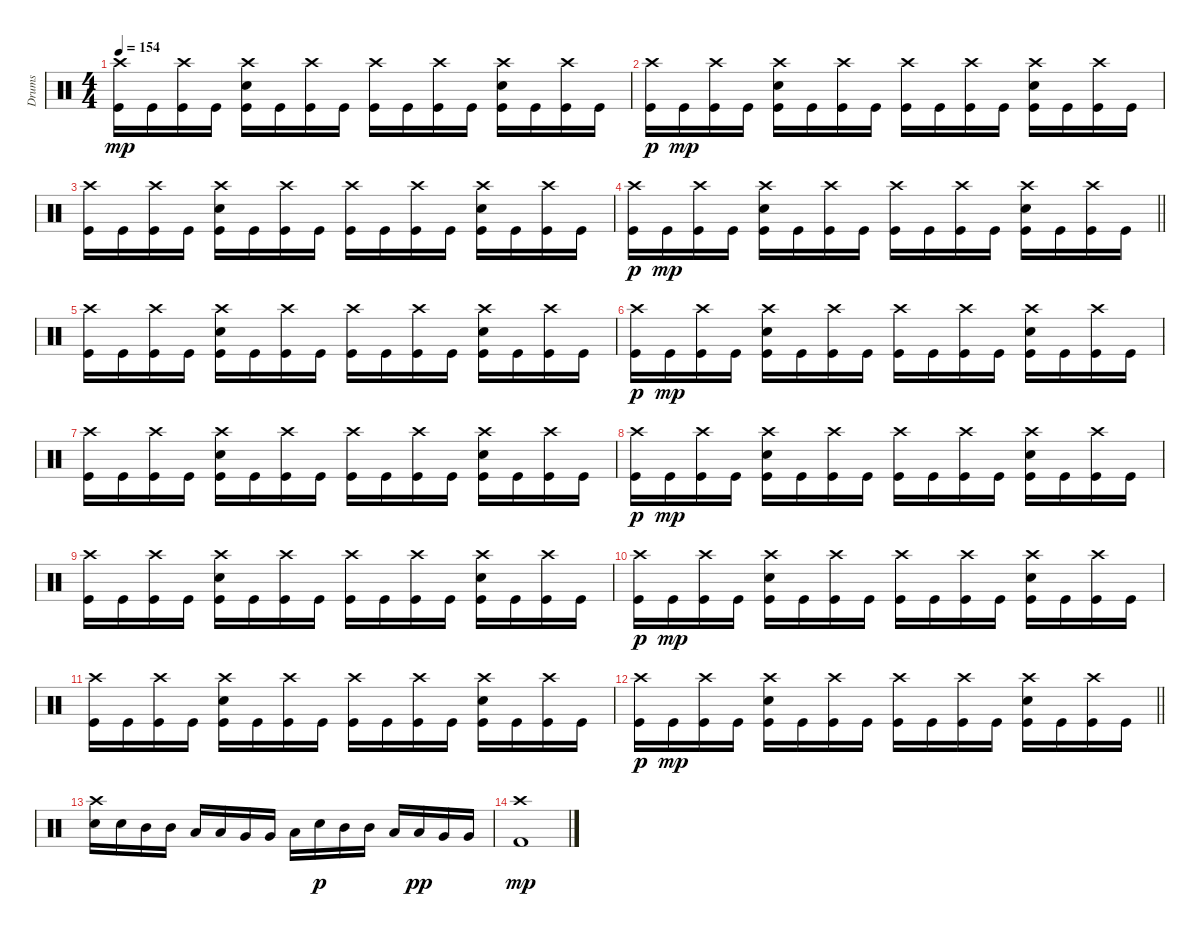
\track ("Drums" "Drums") {instrument percussion}
\staff {score}
\articulation defaults
\ts (4 4)
\tempo 154
\clef neutral
\ks c
("Crash high (hit)" "Kick (hit)").16{dy mp} "Kick (hit)".16 ("Crash high (hit)" "Kick (hit)").16 "Kick (hit)".16 ("Crash high (hit)" "Electric Snare (hit)" "Kick (hit)").16 "Kick (hit)".16 ("Crash high (hit)" "Kick (hit)").16 "Kick (hit)".16 ("Crash high (hit)" "Kick (hit)").16 "Kick (hit)".16 ("Crash high (hit)" "Kick (hit)").16 "Kick (hit)".16 ("Crash high (hit)" "Electric Snare (hit)" "Kick (hit)").16 "Kick (hit)".16 ("Crash high (hit)" "Kick (hit)").16 "Kick (hit)".16 |
("Crash high (hit)" "Kick (hit)").16{dy p} "Kick (hit)".16{dy mp} ("Crash high (hit)" "Kick (hit)").16 "Kick (hit)".16 ("Crash high (hit)" "Electric Snare (hit)" "Kick (hit)").16 "Kick (hit)".16 ("Crash high (hit)" "Kick (hit)").16 "Kick (hit)".16 ("Crash high (hit)" "Kick (hit)").16 "Kick (hit)".16 ("Crash high (hit)" "Kick (hit)").16 "Kick (hit)".16 ("Crash high (hit)" "Electric Snare (hit)" "Kick (hit)").16 "Kick (hit)".16 ("Crash high (hit)" "Kick (hit)").16 "Kick (hit)".16 |
("Crash high (hit)" "Kick (hit)").16 "Kick (hit)".16 ("Crash high (hit)" "Kick (hit)").16 "Kick (hit)".16 ("Crash high (hit)" "Electric Snare (hit)" "Kick (hit)").16 "Kick (hit)".16 ("Crash high (hit)" "Kick (hit)").16 "Kick (hit)".16 ("Crash high (hit)" "Kick (hit)").16 "Kick (hit)".16 ("Crash high (hit)" "Kick (hit)").16 "Kick (hit)".16 ("Crash high (hit)" "Electric Snare (hit)" "Kick (hit)").16 "Kick (hit)".16 ("Crash high (hit)" "Kick (hit)").16 "Kick (hit)".16 |
\barLineRight lightlight
("Crash high (hit)" "Kick (hit)").16{dy p} "Kick (hit)".16{dy mp} ("Crash high (hit)" "Kick (hit)").16 "Kick (hit)".16 ("Crash high (hit)" "Electric Snare (hit)" "Kick (hit)").16 "Kick (hit)".16 ("Crash high (hit)" "Kick (hit)").16 "Kick (hit)".16 ("Crash high (hit)" "Kick (hit)").16 "Kick (hit)".16 ("Crash high (hit)" "Kick (hit)").16 "Kick (hit)".16 ("Crash high (hit)" "Electric Snare (hit)" "Kick (hit)").16 "Kick (hit)".16 ("Crash high (hit)" "Kick (hit)").16 "Kick (hit)".16 |
("Crash high (hit)" "Kick (hit)").16 "Kick (hit)".16 ("Crash high (hit)" "Kick (hit)").16 "Kick (hit)".16 ("Crash high (hit)" "Electric Snare (hit)" "Kick (hit)").16 "Kick (hit)".16 ("Crash high (hit)" "Kick (hit)").16 "Kick (hit)".16 ("Crash high (hit)" "Kick (hit)").16 "Kick (hit)".16 ("Crash high (hit)" "Kick (hit)").16 "Kick (hit)".16 ("Crash high (hit)" "Electric Snare (hit)" "Kick (hit)").16 "Kick (hit)".16 ("Crash high (hit)" "Kick (hit)").16 "Kick (hit)".16 |
("Crash high (hit)" "Kick (hit)").16{dy p} "Kick (hit)".16{dy mp} ("Crash high (hit)" "Kick (hit)").16 "Kick (hit)".16 ("Crash high (hit)" "Electric Snare (hit)" "Kick (hit)").16 "Kick (hit)".16 ("Crash high (hit)" "Kick (hit)").16 "Kick (hit)".16 ("Crash high (hit)" "Kick (hit)").16 "Kick (hit)".16 ("Crash high (hit)" "Kick (hit)").16 "Kick (hit)".16 ("Crash high (hit)" "Electric Snare (hit)" "Kick (hit)").16 "Kick (hit)".16 ("Crash high (hit)" "Kick (hit)").16 "Kick (hit)".16 |
("Crash high (hit)" "Kick (hit)").16 "Kick (hit)".16 ("Crash high (hit)" "Kick (hit)").16 "Kick (hit)".16 ("Crash high (hit)" "Electric Snare (hit)" "Kick (hit)").16 "Kick (hit)".16 ("Crash high (hit)" "Kick (hit)").16 "Kick (hit)".16 ("Crash high (hit)" "Kick (hit)").16 "Kick (hit)".16 ("Crash high (hit)" "Kick (hit)").16 "Kick (hit)".16 ("Crash high (hit)" "Electric Snare (hit)" "Kick (hit)").16 "Kick (hit)".16 ("Crash high (hit)" "Kick (hit)").16 "Kick (hit)".16 |
("Crash high (hit)" "Kick (hit)").16{dy p} "Kick (hit)".16{dy mp} ("Crash high (hit)" "Kick (hit)").16 "Kick (hit)".16 ("Crash high (hit)" "Electric Snare (hit)" "Kick (hit)").16 "Kick (hit)".16 ("Crash high (hit)" "Kick (hit)").16 "Kick (hit)".16 ("Crash high (hit)" "Kick (hit)").16 "Kick (hit)".16 ("Crash high (hit)" "Kick (hit)").16 "Kick (hit)".16 ("Crash high (hit)" "Electric Snare (hit)" "Kick (hit)").16 "Kick (hit)".16 ("Crash high (hit)" "Kick (hit)").16 "Kick (hit)".16 |
("Crash high (hit)" "Kick (hit)").16 "Kick (hit)".16 ("Crash high (hit)" "Kick (hit)").16 "Kick (hit)".16 ("Crash high (hit)" "Electric Snare (hit)" "Kick (hit)").16 "Kick (hit)".16 ("Crash high (hit)" "Kick (hit)").16 "Kick (hit)".16 ("Crash high (hit)" "Kick (hit)").16 "Kick (hit)".16 ("Crash high (hit)" "Kick (hit)").16 "Kick (hit)".16 ("Crash high (hit)" "Electric Snare (hit)" "Kick (hit)").16 "Kick (hit)".16 ("Crash high (hit)" "Kick (hit)").16 "Kick (hit)".16 |
("Crash high (hit)" "Kick (hit)").16{dy p} "Kick (hit)".16{dy mp} ("Crash high (hit)" "Kick (hit)").16 "Kick (hit)".16 ("Crash high (hit)" "Electric Snare (hit)" "Kick (hit)").16 "Kick (hit)".16 ("Crash high (hit)" "Kick (hit)").16 "Kick (hit)".16 ("Crash high (hit)" "Kick (hit)").16 "Kick (hit)".16 ("Crash high (hit)" "Kick (hit)").16 "Kick (hit)".16 ("Crash high (hit)" "Electric Snare (hit)" "Kick (hit)").16 "Kick (hit)".16 ("Crash high (hit)" "Kick (hit)").16 "Kick (hit)".16 |
("Crash high (hit)" "Kick (hit)").16 "Kick (hit)".16 ("Crash high (hit)" "Kick (hit)").16 "Kick (hit)".16 ("Crash high (hit)" "Electric Snare (hit)" "Kick (hit)").16 "Kick (hit)".16 ("Crash high (hit)" "Kick (hit)").16 "Kick (hit)".16 ("Crash high (hit)" "Kick (hit)").16 "Kick (hit)".16 ("Crash high (hit)" "Kick (hit)").16 "Kick (hit)".16 ("Crash high (hit)" "Electric Snare (hit)" "Kick (hit)").16 "Kick (hit)".16 ("Crash high (hit)" "Kick (hit)").16 "Kick (hit)".16 |
\barLineRight lightlight
("Crash high (hit)" "Kick (hit)").16{dy p} "Kick (hit)".16{dy mp} ("Crash high (hit)" "Kick (hit)").16 "Kick (hit)".16 ("Crash high (hit)" "Electric Snare (hit)" "Kick (hit)").16 "Kick (hit)".16 ("Crash high (hit)" "Kick (hit)").16 "Kick (hit)".16 ("Crash high (hit)" "Kick (hit)").16 "Kick (hit)".16 ("Crash high (hit)" "Kick (hit)").16 "Kick (hit)".16 ("Crash high (hit)" "Electric Snare (hit)" "Kick (hit)").16 "Kick (hit)".16 ("Crash high (hit)" "Kick (hit)").16 "Kick (hit)".16 |
("Crash high (hit)" "Electric Snare (hit)").16 "Electric Snare (hit)".16 "Mid Tom (hit)".16 "Mid Tom (hit)".16 "Low Tom (hit)".16 "Low Tom (hit)".16 "Very Low Tom (hit)".16 "Very Low Tom (hit)".16 "Low Tom (hit)".16 "Electric Snare (hit)".16{dy p} "Mid Tom (hit)".16 "Mid Tom (hit)".16 "Low Tom (hit)".16 "Low Tom (hit)".16{dy pp} "Very Low Tom (hit)".16 "Very Low Tom (hit)".16 |
("Crash high (hit)" "Kick (hit) 2").1{dy mp}
